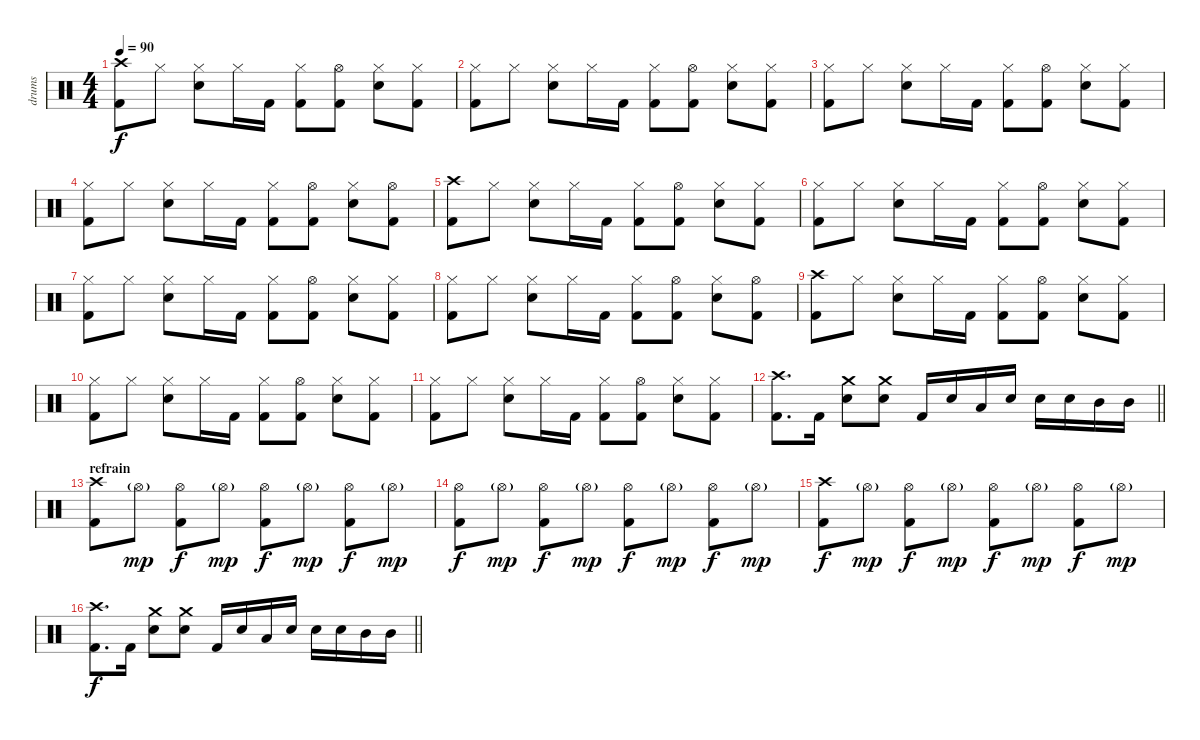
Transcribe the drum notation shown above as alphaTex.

\track ("drums" "drums") {instrument percussion}
\staff
\articulation defaults
\ts (4 4)
\tempo 90
\clef neutral
\ks c
("Crash high (hit)" "Kick (hit) 2").8{dy f} "Hi-Hat (closed)".8 ("Hi-Hat (closed)" "Electric Snare (hit)").8 "Hi-Hat (closed)".16 "Kick (hit) 2".16 ("Hi-Hat (closed)" "Kick (hit) 2").8 ("Hi-Hat (open)" "Kick (hit) 2").8 ("Hi-Hat (closed)" "Electric Snare (hit)").8 ("Hi-Hat (closed)" "Kick (hit) 2").8 |
("Hi-Hat (closed)" "Kick (hit) 2").8 "Hi-Hat (closed)".8 ("Hi-Hat (closed)" "Electric Snare (hit)").8 "Hi-Hat (closed)".16 "Kick (hit) 2".16 ("Hi-Hat (closed)" "Kick (hit) 2").8 ("Hi-Hat (open)" "Kick (hit) 2").8 ("Hi-Hat (closed)" "Electric Snare (hit)").8 ("Hi-Hat (closed)" "Kick (hit) 2").8 |
("Hi-Hat (closed)" "Kick (hit) 2").8 "Hi-Hat (closed)".8 ("Hi-Hat (closed)" "Electric Snare (hit)").8 "Hi-Hat (closed)".16 "Kick (hit) 2".16 ("Hi-Hat (closed)" "Kick (hit) 2").8 ("Hi-Hat (open)" "Kick (hit) 2").8 ("Hi-Hat (closed)" "Electric Snare (hit)").8 ("Hi-Hat (closed)" "Kick (hit) 2").8 |
("Hi-Hat (closed)" "Kick (hit) 2").8 "Hi-Hat (closed)".8 ("Hi-Hat (closed)" "Electric Snare (hit)").8 "Hi-Hat (closed)".16 "Kick (hit) 2".16 ("Hi-Hat (closed)" "Kick (hit) 2").8 ("Hi-Hat (open)" "Kick (hit) 2").8 ("Hi-Hat (closed)" "Electric Snare (hit)").8 ("Hi-Hat (open)" "Kick (hit) 2").8 |
("Crash high (hit)" "Kick (hit) 2").8 "Hi-Hat (closed)".8 ("Hi-Hat (closed)" "Electric Snare (hit)").8 "Hi-Hat (closed)".16 "Kick (hit) 2".16 ("Hi-Hat (closed)" "Kick (hit) 2").8 ("Hi-Hat (open)" "Kick (hit) 2").8 ("Hi-Hat (closed)" "Electric Snare (hit)").8 ("Hi-Hat (closed)" "Kick (hit) 2").8 |
("Hi-Hat (closed)" "Kick (hit) 2").8 "Hi-Hat (closed)".8 ("Hi-Hat (closed)" "Electric Snare (hit)").8 "Hi-Hat (closed)".16 "Kick (hit) 2".16 ("Hi-Hat (closed)" "Kick (hit) 2").8 ("Hi-Hat (open)" "Kick (hit) 2").8 ("Hi-Hat (closed)" "Electric Snare (hit)").8 ("Hi-Hat (closed)" "Kick (hit) 2").8 |
("Hi-Hat (closed)" "Kick (hit) 2").8 "Hi-Hat (closed)".8 ("Hi-Hat (closed)" "Electric Snare (hit)").8 "Hi-Hat (closed)".16 "Kick (hit) 2".16 ("Hi-Hat (closed)" "Kick (hit) 2").8 ("Hi-Hat (open)" "Kick (hit) 2").8 ("Hi-Hat (closed)" "Electric Snare (hit)").8 ("Hi-Hat (closed)" "Kick (hit) 2").8 |
("Hi-Hat (closed)" "Kick (hit) 2").8 "Hi-Hat (closed)".8 ("Hi-Hat (closed)" "Electric Snare (hit)").8 "Hi-Hat (closed)".16 "Kick (hit) 2".16 ("Hi-Hat (closed)" "Kick (hit) 2").8 ("Hi-Hat (open)" "Kick (hit) 2").8 ("Hi-Hat (closed)" "Electric Snare (hit)").8 ("Hi-Hat (open)" "Kick (hit) 2").8 |
("Crash high (hit)" "Kick (hit) 2").8 "Hi-Hat (closed)".8 ("Hi-Hat (closed)" "Electric Snare (hit)").8 "Hi-Hat (closed)".16 "Kick (hit) 2".16 ("Hi-Hat (closed)" "Kick (hit) 2").8 ("Hi-Hat (open)" "Kick (hit) 2").8 ("Hi-Hat (closed)" "Electric Snare (hit)").8 ("Hi-Hat (closed)" "Kick (hit) 2").8 |
("Hi-Hat (closed)" "Kick (hit) 2").8 "Hi-Hat (closed)".8 ("Hi-Hat (closed)" "Electric Snare (hit)").8 "Hi-Hat (closed)".16 "Kick (hit) 2".16 ("Hi-Hat (closed)" "Kick (hit) 2").8 ("Hi-Hat (open)" "Kick (hit) 2").8 ("Hi-Hat (closed)" "Electric Snare (hit)").8 ("Hi-Hat (closed)" "Kick (hit) 2").8 |
("Hi-Hat (closed)" "Kick (hit) 2").8 "Hi-Hat (closed)".8 ("Hi-Hat (closed)" "Electric Snare (hit)").8 "Hi-Hat (closed)".16 "Kick (hit) 2".16 ("Hi-Hat (closed)" "Kick (hit) 2").8 ("Hi-Hat (open)" "Kick (hit) 2").8 ("Hi-Hat (closed)" "Electric Snare (hit)").8 ("Hi-Hat (closed)" "Kick (hit) 2").8 |
\barLineRight lightlight
("Crash high (hit)" "Kick (hit) 2").8{d} "Kick (hit) 2".16 ("Crash medium (hit)" "Electric Snare (hit)").8 ("Crash medium (hit)" "Electric Snare (hit)").8 "Kick (hit) 2".16 "Electric Snare (hit)".16 "Low Tom (hit)".16 "Electric Snare (hit)".16 "Electric Snare (hit)".16 "Electric Snare (hit)".16 "Mid Tom (hit)".16 "Mid Tom (hit)".16 |
\section ("" "refrain")
("Crash high (hit)" "Kick (hit) 2").8 "Hi-Hat (open)"{g}.8{dy mp} ("Hi-Hat (open)" "Kick (hit) 2").8{dy f} "Hi-Hat (open)"{g}.8{dy mp} ("Hi-Hat (open)" "Kick (hit) 2").8{dy f} "Hi-Hat (open)"{g}.8{dy mp} ("Hi-Hat (open)" "Kick (hit) 2").8{dy f} "Hi-Hat (open)"{g}.8{dy mp} |
("Hi-Hat (open)" "Kick (hit) 2").8{dy f} "Hi-Hat (open)"{g}.8{dy mp} ("Hi-Hat (open)" "Kick (hit) 2").8{dy f} "Hi-Hat (open)"{g}.8{dy mp} ("Hi-Hat (open)" "Kick (hit) 2").8{dy f} "Hi-Hat (open)"{g}.8{dy mp} ("Hi-Hat (open)" "Kick (hit) 2").8{dy f} "Hi-Hat (open)"{g}.8{dy mp} |
("Crash high (hit)" "Kick (hit) 2").8{dy f} "Hi-Hat (open)"{g}.8{dy mp} ("Hi-Hat (open)" "Kick (hit) 2").8{dy f} "Hi-Hat (open)"{g}.8{dy mp} ("Hi-Hat (open)" "Kick (hit) 2").8{dy f} "Hi-Hat (open)"{g}.8{dy mp} ("Hi-Hat (open)" "Kick (hit) 2").8{dy f} "Hi-Hat (open)"{g}.8{dy mp} |
\barLineRight lightlight
("Crash high (hit)" "Kick (hit) 2").8{d dy f} "Kick (hit) 2".16 ("Crash medium (hit)" "Electric Snare (hit)").8 ("Crash medium (hit)" "Electric Snare (hit)").8 "Kick (hit) 2".16 "Electric Snare (hit)".16 "Low Tom (hit)".16 "Electric Snare (hit)".16 "Electric Snare (hit)".16 "Electric Snare (hit)".16 "Mid Tom (hit)".16 "Mid Tom (hit)".16
